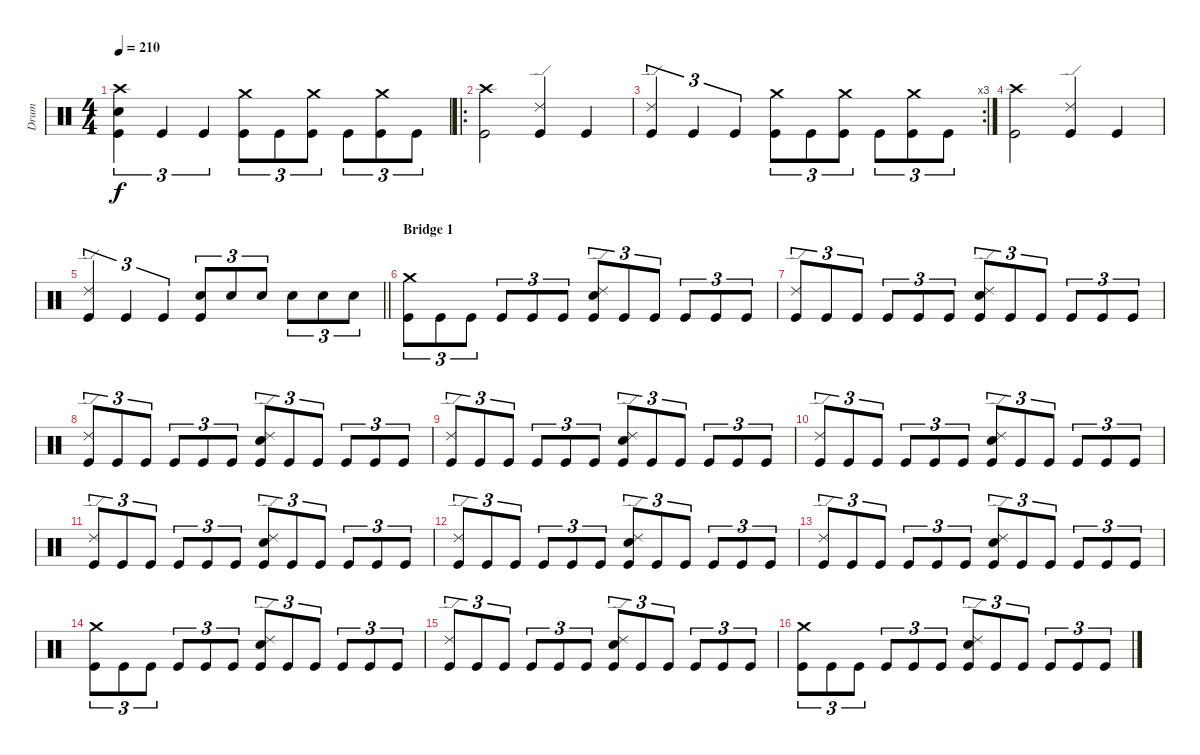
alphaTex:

\track ("Drum" "Drum") {instrument percussion}
\staff {score}
\articulation defaults
\ts (4 4)
\tempo 210
\clef neutral
\ks c
("Crash high (hit)" "Snare (hit) 2" "Kick (hit)").4{tu (3 2) dy f} "Kick (hit)".4{tu (3 2)} "Kick (hit)".4{tu (3 2)} ("Crash medium (hit)" "Kick (hit)").8{tu (3 2)} "Kick (hit)".8{tu (3 2)} ("Crash medium (hit)" "Kick (hit)").8{tu (3 2)} "Kick (hit)".8{tu (3 2)} ("Crash medium (hit)" "Kick (hit)").8{tu (3 2)} "Kick (hit)".8{tu (3 2)} |
\ro
("Crash high (hit)" "Kick (hit)").2 ("Ride (edge) 2" "Kick (hit)").4 "Kick (hit)".4 |
\rc 3
("Ride (edge) 2" "Kick (hit)").4{tu (3 2)} "Kick (hit)".4{tu (3 2)} "Kick (hit)".4{tu (3 2)} ("Crash medium (hit)" "Kick (hit)").8{tu (3 2)} "Kick (hit)".8{tu (3 2)} ("Crash medium (hit)" "Kick (hit)").8{tu (3 2)} "Kick (hit)".8{tu (3 2)} ("Crash medium (hit)" "Kick (hit)").8{tu (3 2)} "Kick (hit)".8{tu (3 2)} |
("Crash high (hit)" "Kick (hit)").2 ("Ride (edge) 2" "Kick (hit)").4 "Kick (hit)".4 |
\barLineRight lightlight
("Ride (edge) 2" "Kick (hit)").4{tu (3 2)} "Kick (hit)".4{tu (3 2)} "Kick (hit)".4{tu (3 2)} ("Snare (hit) 2" "Kick (hit)").8{tu (3 2)} "Snare (hit) 2".8{tu (3 2)} "Snare (hit) 2".8{tu (3 2)} "Snare (hit) 2".8{tu (3 2)} "Snare (hit) 2".8{tu (3 2)} "Snare (hit) 2".8{tu (3 2)} |
\section ("" "Bridge 1")
("Crash medium (hit)" "Kick (hit)").8{tu (3 2)} "Kick (hit)".8{tu (3 2)} "Kick (hit)".8{tu (3 2)} "Kick (hit)".8{tu (3 2)} "Kick (hit)".8{tu (3 2)} "Kick (hit)".8{tu (3 2)} ("Ride (edge) 2" "Snare (hit) 2" "Kick (hit)").8{tu (3 2)} "Kick (hit)".8{tu (3 2)} "Kick (hit)".8{tu (3 2)} "Kick (hit)".8{tu (3 2)} "Kick (hit)".8{tu (3 2)} "Kick (hit)".8{tu (3 2)} |
("Ride (edge) 2" "Kick (hit)").8{tu (3 2)} "Kick (hit)".8{tu (3 2)} "Kick (hit)".8{tu (3 2)} "Kick (hit)".8{tu (3 2)} "Kick (hit)".8{tu (3 2)} "Kick (hit)".8{tu (3 2)} ("Ride (edge) 2" "Snare (hit) 2" "Kick (hit)").8{tu (3 2)} "Kick (hit)".8{tu (3 2)} "Kick (hit)".8{tu (3 2)} "Kick (hit)".8{tu (3 2)} "Kick (hit)".8{tu (3 2)} "Kick (hit)".8{tu (3 2)} |
("Ride (edge) 2" "Kick (hit)").8{tu (3 2)} "Kick (hit)".8{tu (3 2)} "Kick (hit)".8{tu (3 2)} "Kick (hit)".8{tu (3 2)} "Kick (hit)".8{tu (3 2)} "Kick (hit)".8{tu (3 2)} ("Ride (edge) 2" "Snare (hit) 2" "Kick (hit)").8{tu (3 2)} "Kick (hit)".8{tu (3 2)} "Kick (hit)".8{tu (3 2)} "Kick (hit)".8{tu (3 2)} "Kick (hit)".8{tu (3 2)} "Kick (hit)".8{tu (3 2)} |
("Ride (edge) 2" "Kick (hit)").8{tu (3 2)} "Kick (hit)".8{tu (3 2)} "Kick (hit)".8{tu (3 2)} "Kick (hit)".8{tu (3 2)} "Kick (hit)".8{tu (3 2)} "Kick (hit)".8{tu (3 2)} ("Ride (edge) 2" "Snare (hit) 2" "Kick (hit)").8{tu (3 2)} "Kick (hit)".8{tu (3 2)} "Kick (hit)".8{tu (3 2)} "Kick (hit)".8{tu (3 2)} "Kick (hit)".8{tu (3 2)} "Kick (hit)".8{tu (3 2)} |
("Ride (edge) 2" "Kick (hit)").8{tu (3 2)} "Kick (hit)".8{tu (3 2)} "Kick (hit)".8{tu (3 2)} "Kick (hit)".8{tu (3 2)} "Kick (hit)".8{tu (3 2)} "Kick (hit)".8{tu (3 2)} ("Ride (edge) 2" "Snare (hit) 2" "Kick (hit)").8{tu (3 2)} "Kick (hit)".8{tu (3 2)} "Kick (hit)".8{tu (3 2)} "Kick (hit)".8{tu (3 2)} "Kick (hit)".8{tu (3 2)} "Kick (hit)".8{tu (3 2)} |
("Ride (edge) 2" "Kick (hit)").8{tu (3 2)} "Kick (hit)".8{tu (3 2)} "Kick (hit)".8{tu (3 2)} "Kick (hit)".8{tu (3 2)} "Kick (hit)".8{tu (3 2)} "Kick (hit)".8{tu (3 2)} ("Ride (edge) 2" "Snare (hit) 2" "Kick (hit)").8{tu (3 2)} "Kick (hit)".8{tu (3 2)} "Kick (hit)".8{tu (3 2)} "Kick (hit)".8{tu (3 2)} "Kick (hit)".8{tu (3 2)} "Kick (hit)".8{tu (3 2)} |
("Ride (edge) 2" "Kick (hit)").8{tu (3 2)} "Kick (hit)".8{tu (3 2)} "Kick (hit)".8{tu (3 2)} "Kick (hit)".8{tu (3 2)} "Kick (hit)".8{tu (3 2)} "Kick (hit)".8{tu (3 2)} ("Ride (edge) 2" "Snare (hit) 2" "Kick (hit)").8{tu (3 2)} "Kick (hit)".8{tu (3 2)} "Kick (hit)".8{tu (3 2)} "Kick (hit)".8{tu (3 2)} "Kick (hit)".8{tu (3 2)} "Kick (hit)".8{tu (3 2)} |
("Ride (edge) 2" "Kick (hit)").8{tu (3 2)} "Kick (hit)".8{tu (3 2)} "Kick (hit)".8{tu (3 2)} "Kick (hit)".8{tu (3 2)} "Kick (hit)".8{tu (3 2)} "Kick (hit)".8{tu (3 2)} ("Ride (edge) 2" "Snare (hit) 2" "Kick (hit)").8{tu (3 2)} "Kick (hit)".8{tu (3 2)} "Kick (hit)".8{tu (3 2)} "Kick (hit)".8{tu (3 2)} "Kick (hit)".8{tu (3 2)} "Kick (hit)".8{tu (3 2)} |
("Crash medium (hit)" "Kick (hit)").8{tu (3 2)} "Kick (hit)".8{tu (3 2)} "Kick (hit)".8{tu (3 2)} "Kick (hit)".8{tu (3 2)} "Kick (hit)".8{tu (3 2)} "Kick (hit)".8{tu (3 2)} ("Ride (edge) 2" "Snare (hit) 2" "Kick (hit)").8{tu (3 2)} "Kick (hit)".8{tu (3 2)} "Kick (hit)".8{tu (3 2)} "Kick (hit)".8{tu (3 2)} "Kick (hit)".8{tu (3 2)} "Kick (hit)".8{tu (3 2)} |
("Ride (edge) 2" "Kick (hit)").8{tu (3 2)} "Kick (hit)".8{tu (3 2)} "Kick (hit)".8{tu (3 2)} "Kick (hit)".8{tu (3 2)} "Kick (hit)".8{tu (3 2)} "Kick (hit)".8{tu (3 2)} ("Ride (edge) 2" "Snare (hit) 2" "Kick (hit)").8{tu (3 2)} "Kick (hit)".8{tu (3 2)} "Kick (hit)".8{tu (3 2)} "Kick (hit)".8{tu (3 2)} "Kick (hit)".8{tu (3 2)} "Kick (hit)".8{tu (3 2)} |
("Crash medium (hit)" "Kick (hit)").8{tu (3 2)} "Kick (hit)".8{tu (3 2)} "Kick (hit)".8{tu (3 2)} "Kick (hit)".8{tu (3 2)} "Kick (hit)".8{tu (3 2)} "Kick (hit)".8{tu (3 2)} ("Ride (edge) 2" "Snare (hit) 2" "Kick (hit)").8{tu (3 2)} "Kick (hit)".8{tu (3 2)} "Kick (hit)".8{tu (3 2)} "Kick (hit)".8{tu (3 2)} "Kick (hit)".8{tu (3 2)} "Kick (hit)".8{tu (3 2)}
